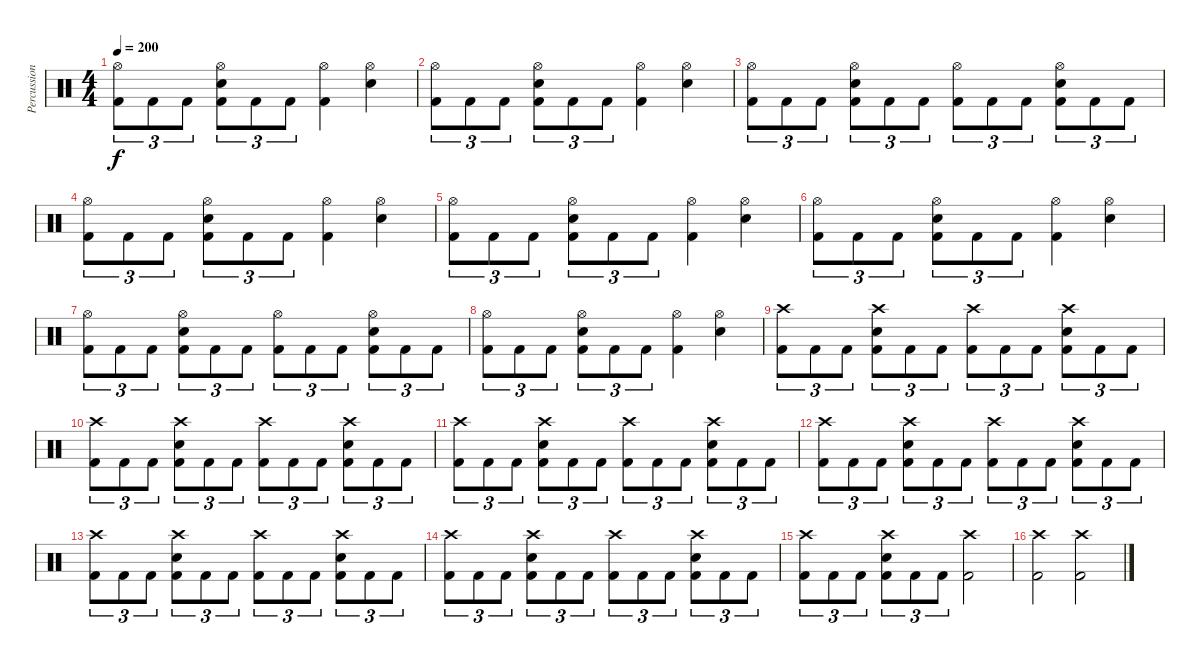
\track ("Percussion" "Percussion") {instrument percussion}
\staff {score}
\articulation defaults
\ts (4 4)
\tempo 200
\clef neutral
\ks c
("Hi-Hat (open)" "Kick (hit) 2").8{tu (3 2) dy f} "Kick (hit) 2".8{tu (3 2)} "Kick (hit) 2".8{tu (3 2)} ("Hi-Hat (open)" "Snare (hit) 2" "Kick (hit) 2").8{tu (3 2)} "Kick (hit) 2".8{tu (3 2)} "Kick (hit) 2".8{tu (3 2)} ("Hi-Hat (open)" "Kick (hit) 2").4 ("Hi-Hat (open)" "Snare (hit) 2").4 |
("Hi-Hat (open)" "Kick (hit) 2").8{tu (3 2)} "Kick (hit) 2".8{tu (3 2)} "Kick (hit) 2".8{tu (3 2)} ("Hi-Hat (open)" "Snare (hit) 2" "Kick (hit) 2").8{tu (3 2)} "Kick (hit) 2".8{tu (3 2)} "Kick (hit) 2".8{tu (3 2)} ("Hi-Hat (open)" "Kick (hit) 2").4 ("Hi-Hat (open)" "Snare (hit) 2").4 |
("Hi-Hat (open)" "Kick (hit) 2").8{tu (3 2)} "Kick (hit) 2".8{tu (3 2)} "Kick (hit) 2".8{tu (3 2)} ("Hi-Hat (open)" "Snare (hit) 2" "Kick (hit) 2").8{tu (3 2)} "Kick (hit) 2".8{tu (3 2)} "Kick (hit) 2".8{tu (3 2)} ("Hi-Hat (open)" "Kick (hit) 2").8{tu (3 2)} "Kick (hit) 2".8{tu (3 2)} "Kick (hit) 2".8{tu (3 2)} ("Hi-Hat (open)" "Snare (hit) 2" "Kick (hit) 2").8{tu (3 2)} "Kick (hit) 2".8{tu (3 2)} "Kick (hit) 2".8{tu (3 2)} |
("Hi-Hat (open)" "Kick (hit) 2").8{tu (3 2)} "Kick (hit) 2".8{tu (3 2)} "Kick (hit) 2".8{tu (3 2)} ("Hi-Hat (open)" "Snare (hit) 2" "Kick (hit) 2").8{tu (3 2)} "Kick (hit) 2".8{tu (3 2)} "Kick (hit) 2".8{tu (3 2)} ("Hi-Hat (open)" "Kick (hit) 2").4 ("Hi-Hat (open)" "Snare (hit) 2").4 |
("Hi-Hat (open)" "Kick (hit) 2").8{tu (3 2)} "Kick (hit) 2".8{tu (3 2)} "Kick (hit) 2".8{tu (3 2)} ("Hi-Hat (open)" "Snare (hit) 2" "Kick (hit) 2").8{tu (3 2)} "Kick (hit) 2".8{tu (3 2)} "Kick (hit) 2".8{tu (3 2)} ("Hi-Hat (open)" "Kick (hit) 2").4 ("Hi-Hat (open)" "Snare (hit) 2").4 |
("Hi-Hat (open)" "Kick (hit) 2").8{tu (3 2)} "Kick (hit) 2".8{tu (3 2)} "Kick (hit) 2".8{tu (3 2)} ("Hi-Hat (open)" "Snare (hit) 2" "Kick (hit) 2").8{tu (3 2)} "Kick (hit) 2".8{tu (3 2)} "Kick (hit) 2".8{tu (3 2)} ("Hi-Hat (open)" "Kick (hit) 2").4 ("Hi-Hat (open)" "Snare (hit) 2").4 |
("Hi-Hat (open)" "Kick (hit) 2").8{tu (3 2)} "Kick (hit) 2".8{tu (3 2)} "Kick (hit) 2".8{tu (3 2)} ("Hi-Hat (open)" "Snare (hit) 2" "Kick (hit) 2").8{tu (3 2)} "Kick (hit) 2".8{tu (3 2)} "Kick (hit) 2".8{tu (3 2)} ("Hi-Hat (open)" "Kick (hit) 2").8{tu (3 2)} "Kick (hit) 2".8{tu (3 2)} "Kick (hit) 2".8{tu (3 2)} ("Hi-Hat (open)" "Snare (hit) 2" "Kick (hit) 2").8{tu (3 2)} "Kick (hit) 2".8{tu (3 2)} "Kick (hit) 2".8{tu (3 2)} |
("Hi-Hat (open)" "Kick (hit) 2").8{tu (3 2)} "Kick (hit) 2".8{tu (3 2)} "Kick (hit) 2".8{tu (3 2)} ("Hi-Hat (open)" "Snare (hit) 2" "Kick (hit) 2").8{tu (3 2)} "Kick (hit) 2".8{tu (3 2)} "Kick (hit) 2".8{tu (3 2)} ("Hi-Hat (open)" "Kick (hit) 2").4 ("Hi-Hat (open)" "Snare (hit) 2").4 |
("Crash high (hit)" "Kick (hit) 2").8{tu (3 2)} "Kick (hit) 2".8{tu (3 2)} "Kick (hit) 2".8{tu (3 2)} ("Crash high (hit)" "Snare (hit) 2" "Kick (hit) 2").8{tu (3 2)} "Kick (hit) 2".8{tu (3 2)} "Kick (hit) 2".8{tu (3 2)} ("Crash high (hit)" "Kick (hit) 2").8{tu (3 2)} "Kick (hit) 2".8{tu (3 2)} "Kick (hit) 2".8{tu (3 2)} ("Crash high (hit)" "Snare (hit) 2" "Kick (hit) 2").8{tu (3 2)} "Kick (hit) 2".8{tu (3 2)} "Kick (hit) 2".8{tu (3 2)} |
("Crash high (hit)" "Kick (hit) 2").8{tu (3 2)} "Kick (hit) 2".8{tu (3 2)} "Kick (hit) 2".8{tu (3 2)} ("Crash high (hit)" "Snare (hit) 2" "Kick (hit) 2").8{tu (3 2)} "Kick (hit) 2".8{tu (3 2)} "Kick (hit) 2".8{tu (3 2)} ("Crash high (hit)" "Kick (hit) 2").8{tu (3 2)} "Kick (hit) 2".8{tu (3 2)} "Kick (hit) 2".8{tu (3 2)} ("Crash high (hit)" "Snare (hit) 2" "Kick (hit) 2").8{tu (3 2)} "Kick (hit) 2".8{tu (3 2)} "Kick (hit) 2".8{tu (3 2)} |
("Crash high (hit)" "Kick (hit) 2").8{tu (3 2)} "Kick (hit) 2".8{tu (3 2)} "Kick (hit) 2".8{tu (3 2)} ("Crash high (hit)" "Snare (hit) 2" "Kick (hit) 2").8{tu (3 2)} "Kick (hit) 2".8{tu (3 2)} "Kick (hit) 2".8{tu (3 2)} ("Crash high (hit)" "Kick (hit) 2").8{tu (3 2)} "Kick (hit) 2".8{tu (3 2)} "Kick (hit) 2".8{tu (3 2)} ("Crash high (hit)" "Snare (hit) 2" "Kick (hit) 2").8{tu (3 2)} "Kick (hit) 2".8{tu (3 2)} "Kick (hit) 2".8{tu (3 2)} |
("Crash high (hit)" "Kick (hit) 2").8{tu (3 2)} "Kick (hit) 2".8{tu (3 2)} "Kick (hit) 2".8{tu (3 2)} ("Crash high (hit)" "Snare (hit) 2" "Kick (hit) 2").8{tu (3 2)} "Kick (hit) 2".8{tu (3 2)} "Kick (hit) 2".8{tu (3 2)} ("Crash high (hit)" "Kick (hit) 2").8{tu (3 2)} "Kick (hit) 2".8{tu (3 2)} "Kick (hit) 2".8{tu (3 2)} ("Crash high (hit)" "Snare (hit) 2" "Kick (hit) 2").8{tu (3 2)} "Kick (hit) 2".8{tu (3 2)} "Kick (hit) 2".8{tu (3 2)} |
("Crash high (hit)" "Kick (hit) 2").8{tu (3 2)} "Kick (hit) 2".8{tu (3 2)} "Kick (hit) 2".8{tu (3 2)} ("Crash high (hit)" "Snare (hit) 2" "Kick (hit) 2").8{tu (3 2)} "Kick (hit) 2".8{tu (3 2)} "Kick (hit) 2".8{tu (3 2)} ("Crash high (hit)" "Kick (hit) 2").8{tu (3 2)} "Kick (hit) 2".8{tu (3 2)} "Kick (hit) 2".8{tu (3 2)} ("Crash high (hit)" "Snare (hit) 2" "Kick (hit) 2").8{tu (3 2)} "Kick (hit) 2".8{tu (3 2)} "Kick (hit) 2".8{tu (3 2)} |
("Crash high (hit)" "Kick (hit) 2").8{tu (3 2)} "Kick (hit) 2".8{tu (3 2)} "Kick (hit) 2".8{tu (3 2)} ("Crash high (hit)" "Snare (hit) 2" "Kick (hit) 2").8{tu (3 2)} "Kick (hit) 2".8{tu (3 2)} "Kick (hit) 2".8{tu (3 2)} ("Crash high (hit)" "Kick (hit) 2").8{tu (3 2)} "Kick (hit) 2".8{tu (3 2)} "Kick (hit) 2".8{tu (3 2)} ("Crash high (hit)" "Snare (hit) 2" "Kick (hit) 2").8{tu (3 2)} "Kick (hit) 2".8{tu (3 2)} "Kick (hit) 2".8{tu (3 2)} |
("Crash high (hit)" "Kick (hit) 2").8{tu (3 2)} "Kick (hit) 2".8{tu (3 2)} "Kick (hit) 2".8{tu (3 2)} ("Crash high (hit)" "Snare (hit) 2" "Kick (hit) 2").8{tu (3 2)} "Kick (hit) 2".8{tu (3 2)} "Kick (hit) 2".8{tu (3 2)} ("Crash high (hit)" "Kick (hit) 2").2 |
("Crash high (hit)" "Kick (hit) 2").2 ("Crash high (hit)" "Kick (hit) 2").2
